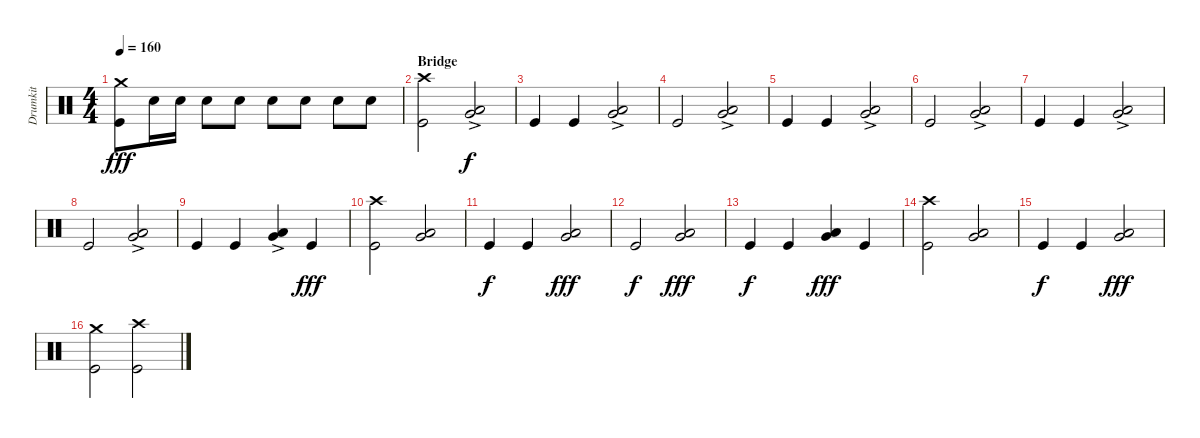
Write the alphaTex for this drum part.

\track ("Drumkit" "Drumkit") {instrument percussion}
\staff {score}
\articulation defaults
\ts (4 4)
\tempo 160
\clef neutral
\ks c
("Kick (hit)" "Crash medium (hit)").8{dy fff} "Snare (hit) 2".16 "Snare (hit) 2".16 "Snare (hit) 2".8 "Snare (hit) 2".8 "Snare (hit) 2".8 "Snare (hit) 2".8 "Snare (hit) 2".8 "Snare (hit) 2".8 |
\section ("" "Bridge")
("Kick (hit)" "Crash high (hit)").2 ("Low Floor Tom (hit)"{ac} "Very Low Tom (hit)"{ac}).2{dy f} |
"Kick (hit)".4 "Kick (hit)".4 ("Low Floor Tom (hit)"{ac} "Very Low Tom (hit)"{ac}).2 |
"Kick (hit)".2 ("Low Floor Tom (hit)"{ac} "Very Low Tom (hit)"{ac}).2 |
"Kick (hit)".4 "Kick (hit)".4 ("Low Floor Tom (hit)"{ac} "Very Low Tom (hit)"{ac}).2 |
"Kick (hit)".2 ("Low Floor Tom (hit)"{ac} "Very Low Tom (hit)"{ac}).2 |
"Kick (hit)".4 "Kick (hit)".4 ("Low Floor Tom (hit)"{ac} "Very Low Tom (hit)"{ac}).2 |
"Kick (hit)".2 ("Low Floor Tom (hit)"{ac} "Very Low Tom (hit)"{ac}).2 |
"Kick (hit)".4 "Kick (hit)".4 ("Low Floor Tom (hit)"{ac} "Very Low Tom (hit)"{ac}).4 "Kick (hit)".4{dy fff} |
("Kick (hit)" "Crash high (hit)").2 ("Low Floor Tom (hit)" "Very Low Tom (hit)").2 |
"Kick (hit)".4{dy f} "Kick (hit)".4 ("Low Floor Tom (hit)" "Very Low Tom (hit)").2{dy fff} |
"Kick (hit)".2{dy f} ("Low Floor Tom (hit)" "Very Low Tom (hit)").2{dy fff} |
"Kick (hit)".4{dy f} "Kick (hit)".4 ("Low Floor Tom (hit)" "Very Low Tom (hit)").4{dy fff} "Kick (hit)".4 |
("Kick (hit)" "Crash high (hit)").2 ("Low Floor Tom (hit)" "Very Low Tom (hit)").2 |
"Kick (hit)".4{dy f} "Kick (hit)".4 ("Low Floor Tom (hit)" "Very Low Tom (hit)").2{dy fff} |
("Kick (hit)" "Crash medium (hit)").2 ("Kick (hit)" "Crash high (hit)").2
